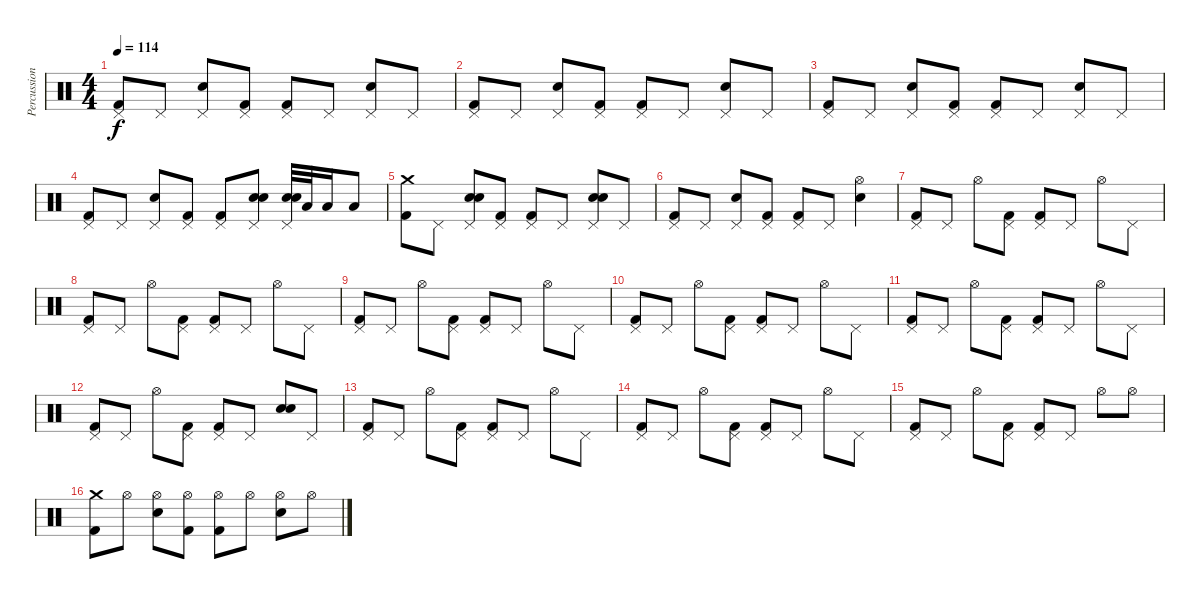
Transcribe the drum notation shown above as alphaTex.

\track ("Percussion" "Percussion") {instrument percussion}
\staff {score}
\articulation defaults
\ts (4 4)
\tempo 114
\clef neutral
\ks c
("Pedal Hi-Hat (hit)" "Kick (hit) 2").8{dy f} "Pedal Hi-Hat (hit)".8 ("Pedal Hi-Hat (hit)" "Electric Snare (hit)").8 ("Pedal Hi-Hat (hit)" "Kick (hit) 2").8 ("Pedal Hi-Hat (hit)" "Kick (hit) 2").8 "Pedal Hi-Hat (hit)".8 ("Pedal Hi-Hat (hit)" "Electric Snare (hit)").8 "Pedal Hi-Hat (hit)".8 |
("Pedal Hi-Hat (hit)" "Kick (hit) 2").8 "Pedal Hi-Hat (hit)".8 ("Pedal Hi-Hat (hit)" "Electric Snare (hit)").8 ("Pedal Hi-Hat (hit)" "Kick (hit) 2").8 ("Pedal Hi-Hat (hit)" "Kick (hit) 2").8 "Pedal Hi-Hat (hit)".8 ("Pedal Hi-Hat (hit)" "Electric Snare (hit)").8 "Pedal Hi-Hat (hit)".8 |
("Pedal Hi-Hat (hit)" "Kick (hit) 2").8 "Pedal Hi-Hat (hit)".8 ("Pedal Hi-Hat (hit)" "Electric Snare (hit)").8 ("Pedal Hi-Hat (hit)" "Kick (hit) 2").8 ("Pedal Hi-Hat (hit)" "Kick (hit) 2").8 "Pedal Hi-Hat (hit)".8 ("Pedal Hi-Hat (hit)" "Electric Snare (hit)").8 "Pedal Hi-Hat (hit)".8 |
("Pedal Hi-Hat (hit)" "Kick (hit) 2").8 "Pedal Hi-Hat (hit)".8 ("Pedal Hi-Hat (hit)" "Electric Snare (hit)").8 ("Pedal Hi-Hat (hit)" "Kick (hit) 2").8 ("Pedal Hi-Hat (hit)" "Kick (hit) 2").8 ("Pedal Hi-Hat (hit)" "Electric Snare (hit)" "Electric Snare (hit)").8 ("Pedal Hi-Hat (hit)" "Electric Snare (hit)" "Electric Snare (hit)").32 "Low Tom (hit)".32 "Low Tom (hit)".16 "Low Floor Tom (hit)".8 |
("Crash medium (hit)" "Kick (hit) 2").8 "Pedal Hi-Hat (hit)".8 ("Pedal Hi-Hat (hit)" "Electric Snare (hit)" "Electric Snare (hit)").8 ("Pedal Hi-Hat (hit)" "Kick (hit) 2").8 ("Pedal Hi-Hat (hit)" "Kick (hit) 2").8 "Pedal Hi-Hat (hit)".8 ("Pedal Hi-Hat (hit)" "Electric Snare (hit)" "Electric Snare (hit)").8 "Pedal Hi-Hat (hit)".8 |
("Pedal Hi-Hat (hit)" "Kick (hit) 2").8 "Pedal Hi-Hat (hit)".8 ("Pedal Hi-Hat (hit)" "Electric Snare (hit)").8 ("Pedal Hi-Hat (hit)" "Kick (hit) 2").8 ("Pedal Hi-Hat (hit)" "Kick (hit) 2").8 "Pedal Hi-Hat (hit)".8 ("Hi-Hat (open)" "Electric Snare (hit)").4 |
("Pedal Hi-Hat (hit)" "Kick (hit) 2").8 "Pedal Hi-Hat (hit)".8 "Hi-Hat (open)".8 ("Pedal Hi-Hat (hit)" "Kick (hit) 2").8 ("Pedal Hi-Hat (hit)" "Kick (hit) 2").8 "Pedal Hi-Hat (hit)".8 "Hi-Hat (open)".8 "Pedal Hi-Hat (hit)".8 |
("Pedal Hi-Hat (hit)" "Kick (hit) 2").8 "Pedal Hi-Hat (hit)".8 "Hi-Hat (open)".8 ("Pedal Hi-Hat (hit)" "Kick (hit) 2").8 ("Pedal Hi-Hat (hit)" "Kick (hit) 2").8 "Pedal Hi-Hat (hit)".8 "Hi-Hat (open)".8 "Pedal Hi-Hat (hit)".8 |
("Pedal Hi-Hat (hit)" "Kick (hit) 2").8 "Pedal Hi-Hat (hit)".8 "Hi-Hat (open)".8 ("Pedal Hi-Hat (hit)" "Kick (hit) 2").8 ("Pedal Hi-Hat (hit)" "Kick (hit) 2").8 "Pedal Hi-Hat (hit)".8 "Hi-Hat (open)".8 "Pedal Hi-Hat (hit)".8 |
("Pedal Hi-Hat (hit)" "Kick (hit) 2").8 "Pedal Hi-Hat (hit)".8 "Hi-Hat (open)".8 ("Pedal Hi-Hat (hit)" "Kick (hit) 2").8 ("Pedal Hi-Hat (hit)" "Kick (hit) 2").8 "Pedal Hi-Hat (hit)".8 "Hi-Hat (open)".8 "Pedal Hi-Hat (hit)".8 |
("Pedal Hi-Hat (hit)" "Kick (hit) 2").8 "Pedal Hi-Hat (hit)".8 "Hi-Hat (open)".8 ("Pedal Hi-Hat (hit)" "Kick (hit) 2").8 ("Pedal Hi-Hat (hit)" "Kick (hit) 2").8 "Pedal Hi-Hat (hit)".8 "Hi-Hat (open)".8 "Pedal Hi-Hat (hit)".8 |
("Pedal Hi-Hat (hit)" "Kick (hit) 2").8 "Pedal Hi-Hat (hit)".8 "Hi-Hat (open)".8 ("Pedal Hi-Hat (hit)" "Kick (hit) 2").8 ("Pedal Hi-Hat (hit)" "Kick (hit) 2").8 "Pedal Hi-Hat (hit)".8 ("Electric Snare (hit)" "Electric Snare (hit)").8 "Pedal Hi-Hat (hit)".8 |
("Pedal Hi-Hat (hit)" "Kick (hit) 2").8 "Pedal Hi-Hat (hit)".8 "Hi-Hat (open)".8 ("Pedal Hi-Hat (hit)" "Kick (hit) 2").8 ("Pedal Hi-Hat (hit)" "Kick (hit) 2").8 "Pedal Hi-Hat (hit)".8 "Hi-Hat (open)".8 "Pedal Hi-Hat (hit)".8 |
("Pedal Hi-Hat (hit)" "Kick (hit) 2").8 "Pedal Hi-Hat (hit)".8 "Hi-Hat (open)".8 ("Pedal Hi-Hat (hit)" "Kick (hit) 2").8 ("Pedal Hi-Hat (hit)" "Kick (hit) 2").8 "Pedal Hi-Hat (hit)".8 "Hi-Hat (open)".8 "Pedal Hi-Hat (hit)".8 |
("Pedal Hi-Hat (hit)" "Kick (hit) 2").8 "Pedal Hi-Hat (hit)".8 "Hi-Hat (open)".8 ("Pedal Hi-Hat (hit)" "Kick (hit) 2").8 ("Pedal Hi-Hat (hit)" "Kick (hit) 2").8 "Pedal Hi-Hat (hit)".8 "Hi-Hat (open)".8 "Hi-Hat (open)".8 |
("Crash medium (hit)" "Kick (hit) 2").8 "Hi-Hat (open)".8 ("Hi-Hat (open)" "Electric Snare (hit)").8 ("Hi-Hat (open)" "Kick (hit) 2").8 ("Hi-Hat (open)" "Kick (hit) 2").8 "Hi-Hat (open)".8 ("Hi-Hat (open)" "Electric Snare (hit)").8 "Hi-Hat (open)".8
